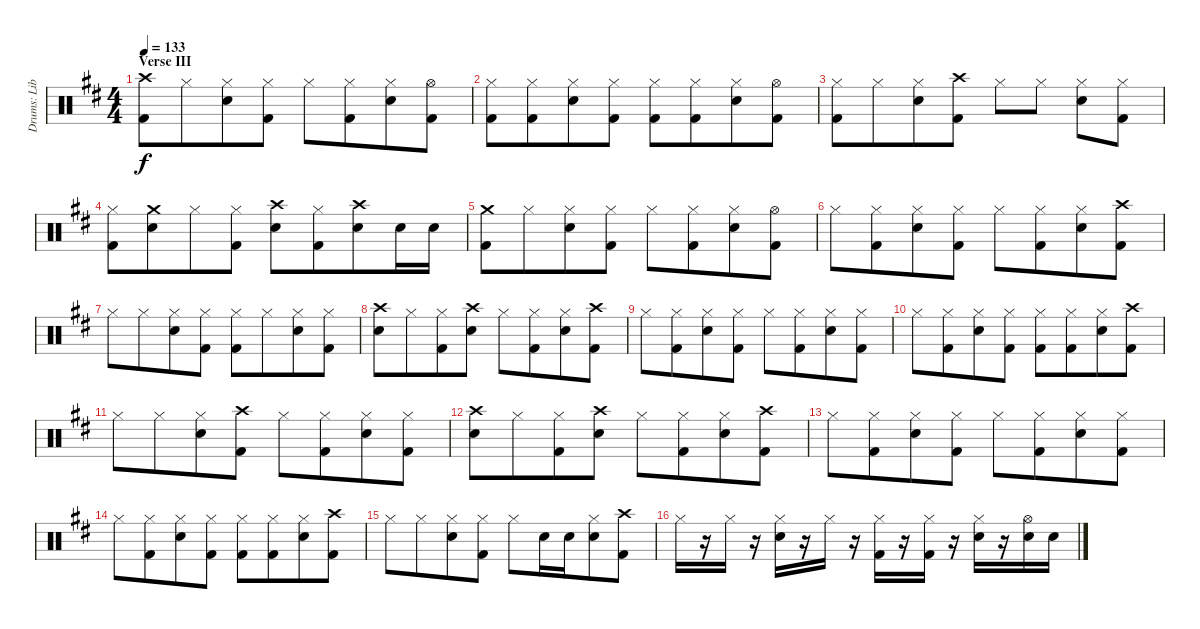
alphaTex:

\track ("Drums: Liberty" "Drums: Lib") {instrument percussion}
\staff {score}
\articulation defaults
\ts (4 4)
\section ("" "Verse III")
\tempo 133
\clef neutral
\ks d
("Crash high (hit)" "Kick (hit) 2").8{dy f} "Hi-Hat (closed)".8{beam merge} ("Hi-Hat (closed)" "Electric Snare (hit)").8 ("Hi-Hat (closed)" "Kick (hit) 2").8 "Hi-Hat (closed)".8 ("Hi-Hat (closed)" "Kick (hit) 2").8{beam merge} ("Hi-Hat (closed)" "Electric Snare (hit)").8 ("Hi-Hat (open)" "Kick (hit) 2").8 |
("Hi-Hat (closed)" "Kick (hit) 2").8 ("Hi-Hat (closed)" "Kick (hit) 2").8{beam merge} ("Hi-Hat (closed)" "Electric Snare (hit)").8 ("Hi-Hat (closed)" "Kick (hit) 2").8 ("Hi-Hat (closed)" "Kick (hit) 2").8 ("Hi-Hat (closed)" "Kick (hit) 2").8{beam merge} ("Hi-Hat (closed)" "Electric Snare (hit)").8 ("Hi-Hat (open)" "Kick (hit) 2").8 |
("Hi-Hat (closed)" "Kick (hit) 2").8 "Hi-Hat (closed)".8{beam merge} ("Hi-Hat (closed)" "Electric Snare (hit)").8 ("Crash high (hit)" "Kick (hit) 2").8 "Hi-Hat (closed)".8 "Hi-Hat (closed)".8 ("Hi-Hat (closed)" "Electric Snare (hit)").8 ("Hi-Hat (closed)" "Kick (hit) 2").8 |
("Hi-Hat (closed)" "Kick (hit) 2").8 ("Crash medium (hit)" "Electric Snare (hit)").8{beam merge} "Hi-Hat (closed)".8 ("Hi-Hat (closed)" "Kick (hit) 2").8 ("Crash high (hit)" "Electric Snare (hit)").8 ("Hi-Hat (closed)" "Kick (hit) 2").8{beam merge} ("Crash high (hit)" "Electric Snare (hit)").8 "Electric Snare (hit)".16 "Electric Snare (hit)".16 |
("Crash medium (hit)" "Kick (hit) 2").8 "Hi-Hat (closed)".8{beam merge} ("Hi-Hat (closed)" "Electric Snare (hit)").8 ("Hi-Hat (closed)" "Kick (hit) 2").8 "Hi-Hat (closed)".8 ("Hi-Hat (closed)" "Kick (hit) 2").8{beam merge} ("Hi-Hat (closed)" "Electric Snare (hit)").8 ("Hi-Hat (open)" "Kick (hit) 2").8 |
"Hi-Hat (closed)".8 ("Hi-Hat (closed)" "Kick (hit) 2").8{beam merge} ("Hi-Hat (closed)" "Electric Snare (hit)").8 ("Hi-Hat (closed)" "Kick (hit) 2").8 "Hi-Hat (closed)".8 ("Hi-Hat (closed)" "Kick (hit) 2").8{beam merge} ("Hi-Hat (closed)" "Electric Snare (hit)").8 ("Crash high (hit)" "Kick (hit) 2").8 |
"Hi-Hat (closed)".8 "Hi-Hat (closed)".8{beam merge} ("Hi-Hat (closed)" "Electric Snare (hit)").8 ("Hi-Hat (closed)" "Kick (hit) 2").8 ("Hi-Hat (closed)" "Kick (hit) 2").8 "Hi-Hat (closed)".8{beam merge} ("Hi-Hat (closed)" "Electric Snare (hit)").8 ("Hi-Hat (closed)" "Kick (hit) 2").8 |
("Crash high (hit)" "Electric Snare (hit)").8 "Hi-Hat (closed)".8{beam merge} ("Hi-Hat (closed)" "Kick (hit) 2").8 ("Crash high (hit)" "Electric Snare (hit)").8 "Hi-Hat (closed)".8 ("Hi-Hat (closed)" "Kick (hit) 2").8{beam merge} ("Hi-Hat (closed)" "Electric Snare (hit)").8 ("Crash high (hit)" "Kick (hit) 2").8 |
"Hi-Hat (closed)".8 ("Hi-Hat (closed)" "Kick (hit) 2").8{beam merge} ("Hi-Hat (closed)" "Electric Snare (hit)").8 ("Hi-Hat (closed)" "Kick (hit) 2").8 "Hi-Hat (closed)".8 ("Hi-Hat (closed)" "Kick (hit) 2").8{beam merge} ("Hi-Hat (closed)" "Electric Snare (hit)").8 ("Hi-Hat (closed)" "Kick (hit) 2").8 |
"Hi-Hat (closed)".8 ("Hi-Hat (closed)" "Kick (hit) 2").8{beam merge} ("Hi-Hat (closed)" "Electric Snare (hit)").8 ("Hi-Hat (closed)" "Kick (hit) 2").8 ("Hi-Hat (closed)" "Kick (hit) 2").8 ("Hi-Hat (closed)" "Kick (hit) 2").8{beam merge} ("Hi-Hat (closed)" "Electric Snare (hit)").8 ("Crash high (hit)" "Kick (hit) 2").8 |
"Hi-Hat (closed)".8 "Hi-Hat (closed)".8{beam merge} ("Hi-Hat (closed)" "Electric Snare (hit)").8 ("Crash high (hit)" "Kick (hit) 2").8 "Hi-Hat (closed)".8 ("Hi-Hat (closed)" "Kick (hit) 2").8{beam merge} ("Hi-Hat (closed)" "Electric Snare (hit)").8 ("Hi-Hat (closed)" "Kick (hit) 2").8 |
("Crash high (hit)" "Electric Snare (hit)").8 "Hi-Hat (closed)".8{beam merge} ("Hi-Hat (closed)" "Kick (hit) 2").8 ("Crash high (hit)" "Electric Snare (hit)").8 "Hi-Hat (closed)".8 ("Hi-Hat (closed)" "Kick (hit) 2").8{beam merge} ("Hi-Hat (closed)" "Electric Snare (hit)").8 ("Crash high (hit)" "Kick (hit) 2").8 |
"Hi-Hat (closed)".8 ("Hi-Hat (closed)" "Kick (hit) 2").8{beam merge} ("Hi-Hat (closed)" "Electric Snare (hit)").8 ("Hi-Hat (closed)" "Kick (hit) 2").8 "Hi-Hat (closed)".8 ("Hi-Hat (closed)" "Kick (hit) 2").8{beam merge} ("Hi-Hat (closed)" "Electric Snare (hit)").8 ("Hi-Hat (closed)" "Kick (hit) 2").8 |
"Hi-Hat (closed)".8 ("Hi-Hat (closed)" "Kick (hit) 2").8{beam merge} ("Hi-Hat (closed)" "Electric Snare (hit)").8 ("Hi-Hat (closed)" "Kick (hit) 2").8 ("Hi-Hat (closed)" "Kick (hit) 2").8 ("Hi-Hat (closed)" "Kick (hit) 2").8{beam merge} ("Hi-Hat (closed)" "Electric Snare (hit)").8 ("Crash high (hit)" "Kick (hit) 2").8 |
"Hi-Hat (closed)".8 "Hi-Hat (closed)".8{beam merge} ("Hi-Hat (closed)" "Electric Snare (hit)").8 ("Hi-Hat (closed)" "Kick (hit) 2").8 "Hi-Hat (closed)".8 "Electric Snare (hit)".16 "Electric Snare (hit)".16{beam merge} ("Hi-Hat (closed)" "Electric Snare (hit)").8 ("Crash high (hit)" "Kick (hit) 2").8 |
"Hi-Hat (closed)".16 r.16 "Hi-Hat (closed)".16 r.16 ("Hi-Hat (closed)" "Electric Snare (hit)").16 r.16 "Hi-Hat (closed)".16 r.16 ("Kick (hit) 2" "Hi-Hat (closed)").16 r.16 ("Hi-Hat (closed)" "Kick (hit) 2").16 r.16 ("Hi-Hat (closed)" "Electric Snare (hit)").16 r.16 ("Hi-Hat (open)" "Electric Snare (hit)").16 "Electric Snare (hit)".16
